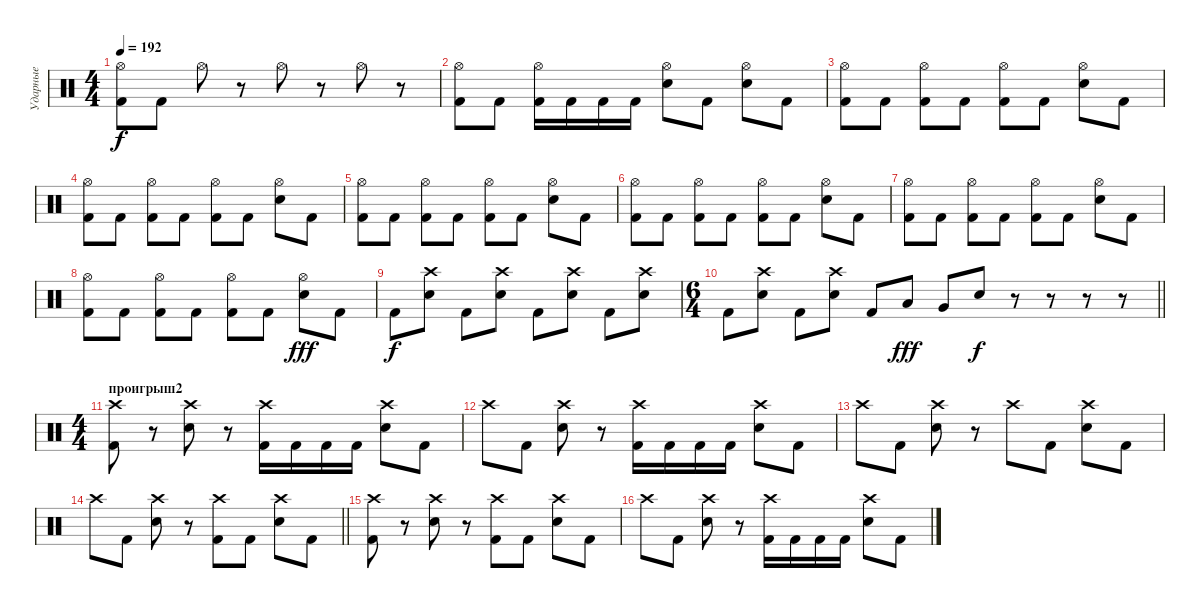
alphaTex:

\track ("Ударные" "Ударные") {instrument percussion}
\staff {score}
\articulation defaults
\ts (4 4)
\tempo 192
\clef neutral
\ks c
("Hi-Hat (open)" "Kick (hit) 2").8{dy f} "Kick (hit) 2".8 "Hi-Hat (open)".8 r.8 "Hi-Hat (open)".8 r.8 "Hi-Hat (open)".8 r.8 |
("Hi-Hat (open)" "Kick (hit) 2").8 "Kick (hit) 2".8 ("Hi-Hat (open)" "Kick (hit) 2").16 "Kick (hit) 2".16 "Kick (hit) 2".16 "Kick (hit) 2".16 ("Hi-Hat (open)" "Electric Snare (hit)").8 "Kick (hit) 2".8 ("Hi-Hat (open)" "Electric Snare (hit)").8 "Kick (hit) 2".8 |
("Hi-Hat (open)" "Kick (hit) 2").8 "Kick (hit) 2".8 ("Hi-Hat (open)" "Kick (hit) 2").8 "Kick (hit) 2".8 ("Hi-Hat (open)" "Kick (hit) 2").8 "Kick (hit) 2".8 ("Hi-Hat (open)" "Electric Snare (hit)").8 "Kick (hit) 2".8 |
("Hi-Hat (open)" "Kick (hit) 2").8 "Kick (hit) 2".8 ("Hi-Hat (open)" "Kick (hit) 2").8 "Kick (hit) 2".8 ("Hi-Hat (open)" "Kick (hit) 2").8 "Kick (hit) 2".8 ("Hi-Hat (open)" "Electric Snare (hit)").8 "Kick (hit) 2".8 |
("Hi-Hat (open)" "Kick (hit) 2").8 "Kick (hit) 2".8 ("Hi-Hat (open)" "Kick (hit) 2").8 "Kick (hit) 2".8 ("Hi-Hat (open)" "Kick (hit) 2").8 "Kick (hit) 2".8 ("Hi-Hat (open)" "Electric Snare (hit)").8 "Kick (hit) 2".8 |
("Hi-Hat (open)" "Kick (hit) 2").8 "Kick (hit) 2".8 ("Hi-Hat (open)" "Kick (hit) 2").8 "Kick (hit) 2".8 ("Hi-Hat (open)" "Kick (hit) 2").8 "Kick (hit) 2".8 ("Hi-Hat (open)" "Electric Snare (hit)").8 "Kick (hit) 2".8 |
("Hi-Hat (open)" "Kick (hit) 2").8 "Kick (hit) 2".8 ("Hi-Hat (open)" "Kick (hit) 2").8 "Kick (hit) 2".8 ("Hi-Hat (open)" "Kick (hit) 2").8 "Kick (hit) 2".8 ("Hi-Hat (open)" "Electric Snare (hit)").8 "Kick (hit) 2".8 |
("Hi-Hat (open)" "Kick (hit) 2").8 "Kick (hit) 2".8 ("Hi-Hat (open)" "Kick (hit) 2").8 "Kick (hit) 2".8 ("Hi-Hat (open)" "Kick (hit) 2").8 "Kick (hit) 2".8 ("Hi-Hat (open)" "Electric Snare (hit)").8{dy fff} "Kick (hit) 2".8 |
"Kick (hit) 2".8{dy f} ("Crash high (hit)" "Electric Snare (hit)").8 "Kick (hit) 2".8 ("Crash high (hit)" "Electric Snare (hit)").8 "Kick (hit) 2".8 ("Crash high (hit)" "Electric Snare (hit)").8 "Kick (hit) 2".8 ("Crash high (hit)" "Electric Snare (hit)").8 |
\ts (6 4)
\barLineRight lightlight "Kick (hit) 2".8
("Crash high (hit)" "Electric Snare (hit)").8 "Kick (hit) 2".8 ("Crash high (hit)" "Electric Snare (hit)").8 "Kick (hit) 2".8 "Low Tom (hit)".8{dy fff} "Very Low Tom (hit)".8 "Electric Snare (hit)".8{dy f} r.8 r.8 r.8 r.8 |
\ts (4 4)
\section ("" "проигрыш2")
("Crash high (hit)" "Kick (hit) 2").8 r.8 ("Crash high (hit)" "Electric Snare (hit)").8 r.8 ("Crash high (hit)" "Kick (hit) 2").16 "Kick (hit) 2".16 "Kick (hit) 2".16 "Kick (hit) 2".16 ("Crash high (hit)" "Electric Snare (hit)").8 "Kick (hit) 2".8 |
"Crash high (hit)".8 "Kick (hit) 2".8 ("Crash high (hit)" "Electric Snare (hit)").8 r.8 ("Crash high (hit)" "Kick (hit) 2").16 "Kick (hit) 2".16 "Kick (hit) 2".16 "Kick (hit) 2".16 ("Crash high (hit)" "Electric Snare (hit)").8 "Kick (hit) 2".8 |
"Crash high (hit)".8 "Kick (hit) 2".8 ("Crash high (hit)" "Electric Snare (hit)").8 r.8 "Crash high (hit)".8 "Kick (hit) 2".8 ("Crash high (hit)" "Electric Snare (hit)").8 "Kick (hit) 2".8 |
\barLineRight lightlight "Crash high (hit)".8 "Kick (hit) 2".8
("Crash high (hit)" "Electric Snare (hit)").8 r.8 ("Crash high (hit)" "Kick (hit) 2").8 "Kick (hit) 2".8 ("Crash high (hit)" "Electric Snare (hit)").8 "Kick (hit) 2".8 |
("Crash high (hit)" "Kick (hit) 2").8 r.8 ("Crash high (hit)" "Electric Snare (hit)").8 r.8 ("Crash high (hit)" "Kick (hit) 2").8 "Kick (hit) 2".8 ("Crash high (hit)" "Electric Snare (hit)").8 "Kick (hit) 2".8 |
"Crash high (hit)".8 "Kick (hit) 2".8 ("Crash high (hit)" "Electric Snare (hit)").8 r.8 ("Crash high (hit)" "Kick (hit) 2").16 "Kick (hit) 2".16 "Kick (hit) 2".16 "Kick (hit) 2".16 ("Crash high (hit)" "Electric Snare (hit)").8 "Kick (hit) 2".8
